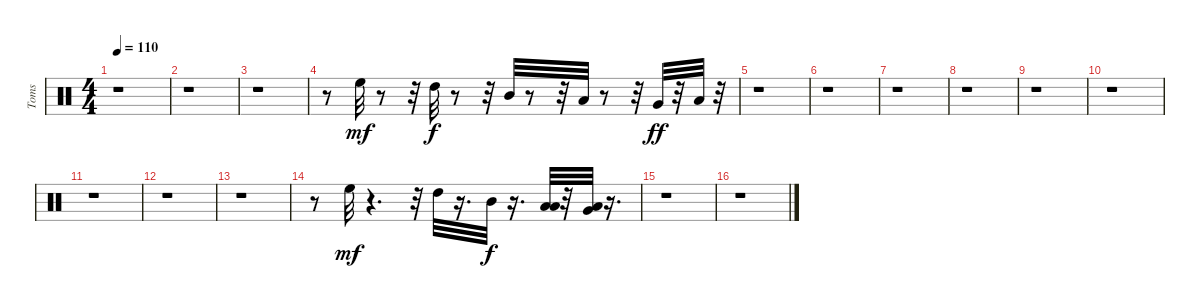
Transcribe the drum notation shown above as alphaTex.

\track ("Toms" "Toms") {instrument percussion}
\staff {score}
\articulation defaults
\ts (4 4)
\tempo 110
\clef neutral
\ks c
r.1{dy f} |
r.1 |
r.1 |
r.8 "High Floor Tom (hit)".32{dy mf} r.8 r.32 "High Tom (hit)".32{dy f} r.8 r.32 "Mid Tom (hit)".32 r.8 r.32 "Low Tom (hit)".32 r.8 r.32 "Very Low Tom (hit)".32{dy ff} r.32 "Low Floor Tom (hit)".32 r.32 |
r.1 |
r.1 |
r.1 |
r.1 |
r.1 |
r.1 |
r.1 |
r.1 |
r.1 |
r.8 "High Floor Tom (hit)".32{dy mf} r.4{d} r.32 "High Tom (hit)".32 r.16{d} "Mid Tom (hit)".32{dy f} r.16{d} ("Low Tom (hit)" "Low Tom (hit)").32 r.32 ("Very Low Tom (hit)" "Low Floor Tom (hit)").32 r.16{d} |
r.1 |
r.1
